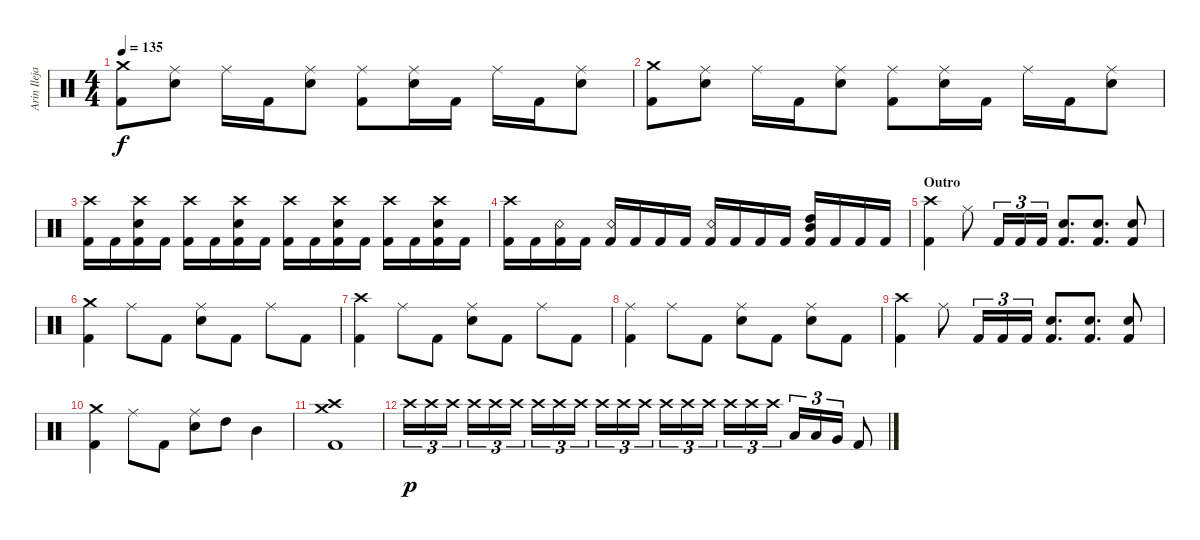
\track ("Arin Ilejay" "Arin Ileja") {instrument percussion}
\staff {score}
\articulation defaults
\ts (4 4)
\tempo 135
\clef neutral
\ks c
("Kick (hit) 2" "Crash medium (hit)").8{dy f} ("Ride (middle)" "Snare (hit) 2").8 "Ride (middle)".16 "Kick (hit) 2".16 ("Ride (middle)" "Snare (hit) 2").8 ("Ride (middle)" "Kick (hit) 2").8 ("Ride (middle)" "Snare (hit) 2").16 "Kick (hit) 2".16 "Ride (middle)".16 "Kick (hit) 2".16 ("Ride (middle)" "Snare (hit) 2").8 |
("Kick (hit) 2" "Crash medium (hit)").8 ("Ride (middle)" "Snare (hit) 2").8 "Ride (middle)".16 "Kick (hit) 2".16 ("Ride (middle)" "Snare (hit) 2").8 ("Kick (hit) 2" "Ride (middle)").8 ("Ride (middle)" "Snare (hit) 2").16 "Kick (hit) 2".16 "Ride (middle)".16 "Kick (hit) 2".16 ("Ride (middle)" "Snare (hit) 2").8 |
("Kick (hit) 2" "Crash high (hit)").16 "Kick (hit) 2".16 ("Kick (hit) 2" "Crash high (hit)" "Snare (hit) 2").16 "Kick (hit) 2".16 ("Kick (hit) 2" "Crash high (hit)").16 "Kick (hit) 2".16 ("Kick (hit) 2" "Crash high (hit)" "Snare (hit) 2").16 "Kick (hit) 2".16 ("Kick (hit) 2" "Crash high (hit)").16 "Kick (hit) 2".16 ("Kick (hit) 2" "Crash high (hit)" "Snare (hit) 2").16 "Kick (hit) 2".16 ("Kick (hit) 2" "Crash high (hit)").16 "Kick (hit) 2".16 ("Kick (hit) 2" "Crash high (hit)" "Snare (hit) 2").16 "Kick (hit) 2".16 |
("Kick (hit) 2" "Crash high (hit)").16 "Kick (hit) 2".16 ("Kick (hit) 2" "Snare (rim shot)").16 "Kick (hit) 2".16 ("Kick (hit) 2" "Snare (rim shot)").16 "Kick (hit) 2".16 "Kick (hit) 2".16 "Kick (hit) 2".16 ("Kick (hit) 2" "Snare (rim shot)").16 "Kick (hit) 2".16 "Kick (hit) 2".16 "Kick (hit) 2".16 ("Kick (hit) 2" "High Tom (hit)" "Mid Tom (hit)").16 "Kick (hit) 2".16 "Kick (hit) 2".16 "Kick (hit) 2".16 |
\section ("" "Outro")
("Crash high (hit)" "Kick (hit) 2").4 "Ride (middle)".8 "Kick (hit) 2".16{tu (3 2)} "Kick (hit) 2".16{tu (3 2)} "Kick (hit) 2".16{tu (3 2)} ("Snare (hit) 2" "Kick (hit) 2").8{d} ("Snare (hit) 2" "Kick (hit) 2").8{d} ("Snare (hit) 2" "Kick (hit) 2").8 |
("Crash medium (hit)" "Kick (hit) 2").4 "Ride (middle)".8 "Kick (hit) 2".8 ("Ride (middle)" "Snare (hit) 2").8 "Kick (hit) 2".8 "Ride (middle)".8 "Kick (hit) 2".8 |
("Crash high (hit)" "Kick (hit) 2").4 "Ride (middle)".8 "Kick (hit) 2".8 ("Ride (middle)" "Snare (hit) 2").8 "Kick (hit) 2".8 "Ride (middle)".8 "Kick (hit) 2".8 |
("Ride (middle)" "Kick (hit) 2").4 "Ride (middle)".8 "Kick (hit) 2".8 ("Ride (middle)" "Snare (hit) 2").8 "Kick (hit) 2".8 ("Ride (middle)" "Snare (hit) 2").8 "Kick (hit) 2".8 |
("Crash high (hit)" "Kick (hit) 2").4 "Ride (middle)".8 "Kick (hit) 2".16{tu (3 2)} "Kick (hit) 2".16{tu (3 2)} "Kick (hit) 2".16{tu (3 2)} ("Snare (hit) 2" "Kick (hit) 2").8{d} ("Snare (hit) 2" "Kick (hit) 2").8{d} ("Snare (hit) 2" "Kick (hit) 2").8 |
("Crash medium (hit)" "Kick (hit) 2").4 "Ride (middle)".8 "Kick (hit) 2".8 ("Snare (hit) 2" "Ride (middle)").8 "High Tom (hit)".8 "Mid Tom (hit)".4 |
("Crash medium (hit)" "Crash high (hit)" "Kick (hit) 2").1 |
"Crash high (hit)".16{tu (3 2) dy p} "Crash high (hit)".16{tu (3 2)} "Crash high (hit)".16{tu (3 2)} "Crash high (hit)".16{tu (3 2)} "Crash high (hit)".16{tu (3 2)} "Crash high (hit)".16{tu (3 2)} "Crash high (hit)".16{tu (3 2)} "Crash high (hit)".16{tu (3 2)} "Crash high (hit)".16{tu (3 2)} "Crash high (hit)".16{tu (3 2)} "Crash high (hit)".16{tu (3 2)} "Crash high (hit)".16{tu (3 2)} "Crash high (hit)".16{tu (3 2)} "Crash high (hit)".16{tu (3 2)} "Crash high (hit)".16{tu (3 2)} "Crash high (hit)".16{tu (3 2)} "Crash high (hit)".16{tu (3 2)} "Crash high (hit)".16{tu (3 2)} "Low Tom (hit)".16{tu (3 2)} "Low Tom (hit)".16{tu (3 2)} "Very Low Tom (hit)".16{tu (3 2)} "Kick (hit) 2".8
